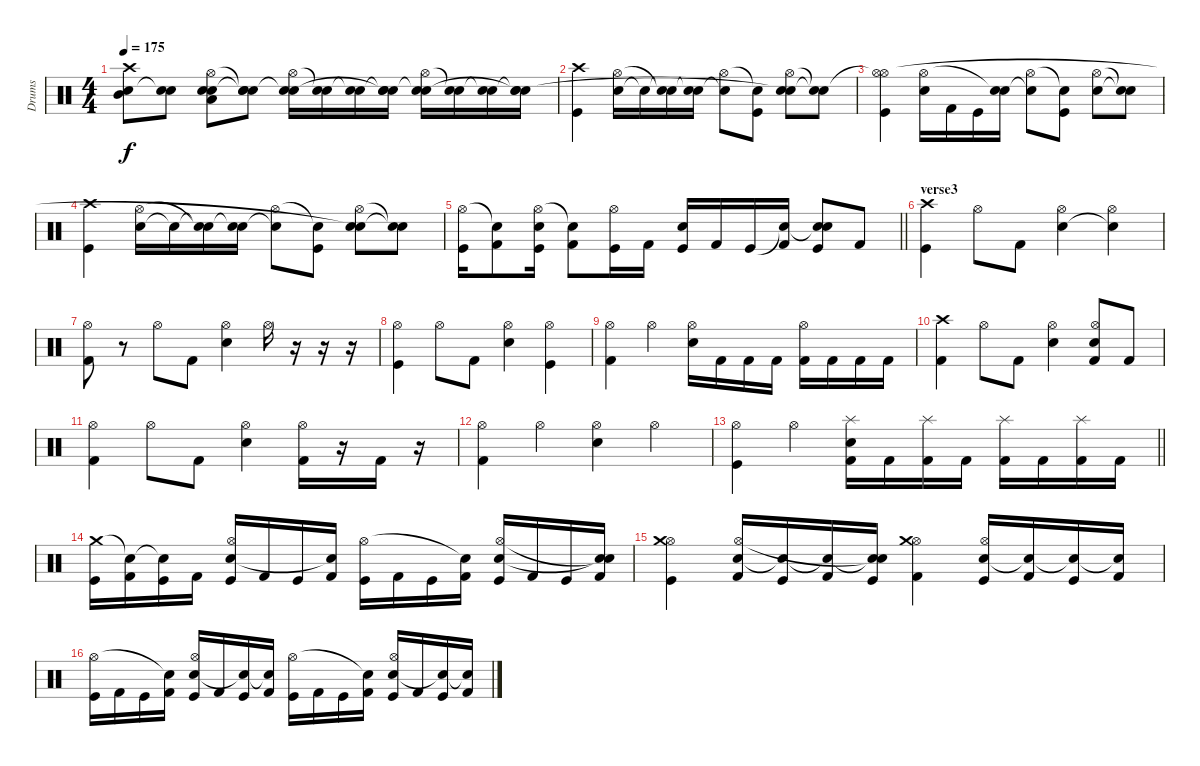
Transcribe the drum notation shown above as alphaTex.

\track ("Drums" "Drums") {instrument percussion}
\staff {score}
\articulation defaults
\ts (4 4)
\tempo 175
\clef neutral
\ks c
("Mid Tom (hit)" "Snare (hit) 2" "Crash high (hit)").8{dy f} ("Snare (hit) 2" "Snare (hit)"{t}).8 ("Low Floor Tom (hit)" "Snare (hit) 2" "Hi-Hat (open)" "Snare (hit)"{t}).8 ("Snare (hit) 2" "Snare (hit)"{t} "Snare (hit)"{t}).8 ("Snare (hit) 2" "Hi-Hat (open)" "Snare (hit)"{t}).16 ("Snare (hit) 2" "Snare (hit)"{t}).16 ("Snare (hit) 2" "Snare (hit)"{t}).16 ("Snare (hit) 2" "Snare (hit)"{t} "Snare (hit)"{t}).16 ("Snare (hit) 2" "Hi-Hat (open)" "Snare (hit)"{t}).16 ("Snare (hit) 2" "Snare (hit)"{t}).16 ("Snare (hit) 2" "Snare (hit)"{t}).16 ("Snare (hit) 2" "Snare (hit)"{t} "Snare (hit)"{t}).16 |
("Kick (hit)" "Crash high (hit)").4 ("Snare (hit) 2" "Hi-Hat (open)").16 "Snare (hit)"{t}.16 ("Snare (hit)"{t} "Snare (hit)"{t}).16 ("Snare (hit) 2" "Snare (hit)"{t}).16 ("Snare (hit)"{t} "Hi-Hat (open)").8 ("Kick (hit)" "Snare (hit)"{t}).8 ("Snare (hit) 2" "Hi-Hat (open)" "Snare (hit)"{t}).8 ("Snare (hit)"{t} "Snare (hit)"{t}).8 |
("Kick (hit)" "Hi-Hat (open)"{t} "Hi-Hat (open)").4 ("Snare (hit) 2" "Hi-Hat (open)").16 "Kick (hit) 2".16 "Kick (hit)".16 ("Snare (hit) 2" "Snare (hit)"{t}).16 ("Snare (hit)"{t} "Hi-Hat (open)").8 ("Kick (hit)" "Snare (hit)"{t}).8 ("Snare (hit) 2" "Hi-Hat (open)").8 ("Snare (hit)"{t} "Snare (hit)"{t}).8 |
("Kick (hit)" "Crash high (hit)").4 ("Snare (hit) 2" "Hi-Hat (open)").16 "Snare (hit)"{t}.16 ("Snare (hit)"{t} "Snare (hit)"{t}).16 ("Snare (hit) 2" "Snare (hit)"{t}).16 ("Snare (hit)"{t} "Hi-Hat (open)").8 ("Kick (hit)" "Snare (hit)"{t}).8 ("Snare (hit) 2" "Hi-Hat (open)" "Snare (hit)"{t}).8 ("Snare (hit)"{t} "Snare (hit)"{t}).8 |
\barLineRight lightlight
("Hi-Hat (open)" "Kick (hit)").16 ("Snare (hit)"{t} "Kick (hit) 2").8 ("Hi-Hat (open)" "Snare (hit) 2" "Kick (hit)").16 ("Snare (hit)"{t} "Kick (hit) 2").8 ("Hi-Hat (open)" "Kick (hit)").16 "Kick (hit) 2".16 ("Snare (hit) 2" "Kick (hit)").16 "Kick (hit) 2".16 "Kick (hit)".16 ("Snare (hit)"{t} "Kick (hit) 2").16 ("Snare (hit)"{t} "Snare (hit) 2" "Kick (hit)").8 "Kick (hit) 2".8 |
\section ("" "verse3")
("Kick (hit)" "Crash high (hit)").4 "Hi-Hat (open)".8 "Kick (hit) 2".8 ("Hi-Hat (open)" "Snare (hit) 2").4 ("Hi-Hat (open)" "Snare (hit)"{t}).4 |
("Hi-Hat (open)" "Kick (hit) 2").8 r.8 "Hi-Hat (open)".8 "Kick (hit) 2".8 ("Hi-Hat (open)" "Snare (hit) 2").4 "Hi-Hat (open)".16 r.16 r.16 r.16 |
("Hi-Hat (open)" "Kick (hit)").4 "Hi-Hat (open)".8 "Kick (hit) 2".8 ("Hi-Hat (open)" "Snare (hit) 2").4 ("Hi-Hat (open)" "Kick (hit)").4 |
("Hi-Hat (open)" "Kick (hit) 2").4 "Hi-Hat (open)".4 ("Hi-Hat (open)" "Snare (hit) 2").16 "Kick (hit) 2".16 "Kick (hit) 2".16 "Kick (hit) 2".16 ("Hi-Hat (open)" "Kick (hit) 2").16 "Kick (hit) 2".16 "Kick (hit) 2".16 "Kick (hit) 2".16 |
("Kick (hit) 2" "Crash high (hit)").4 "Hi-Hat (open)".8 "Kick (hit) 2".8 ("Hi-Hat (open)" "Snare (hit) 2").4 ("Hi-Hat (open)" "Kick (hit) 2" "Snare (hit)").8 "Kick (hit) 2".8 |
("Hi-Hat (open)" "Kick (hit) 2").4 "Hi-Hat (open)".8 "Kick (hit) 2".8 ("Hi-Hat (open)" "Snare (hit) 2").4 ("Hi-Hat (open)" "Kick (hit) 2").16 r.16 "Kick (hit) 2".16 r.16 |
("Hi-Hat (open)" "Kick (hit) 2").4 "Hi-Hat (open)".4 ("Hi-Hat (open)" "Snare (hit) 2").4 "Hi-Hat (open)".4 |
\barLineRight lightlight
("Hi-Hat (open)" "Kick (hit)").4 "Hi-Hat (open)".4 ("Splash (hit)" "Snare (hit) 2" "Kick (hit) 2").16 "Kick (hit) 2".16 ("Splash (hit)" "Kick (hit) 2").16 "Kick (hit) 2".16 ("Splash (hit)" "Kick (hit) 2").16 "Kick (hit) 2".16 ("Splash (hit)" "Kick (hit) 2").16 "Kick (hit) 2".16 |
("Kick (hit)" "Crash medium (hit)").16 ("Kick (hit) 2" "Snare (hit)"{t}).16 ("Kick (hit)" "Snare (hit)"{t}).16 "Kick (hit) 2".16 ("Kick (hit)" "Snare (hit) 2" "Hi-Hat (open)").16 "Kick (hit) 2".16 "Kick (hit)".16 ("Kick (hit) 2" "Snare (hit)"{t}).16 ("Kick (hit)" "Hi-Hat (open)").16 "Kick (hit) 2".16 "Kick (hit)".16 ("Kick (hit) 2" "Snare (hit)"{t}).16 ("Kick (hit)" "Snare (hit) 2" "Hi-Hat (open)").16 "Kick (hit) 2".16 "Kick (hit)".16 ("Kick (hit) 2" "Snare (hit)"{t} "Snare (hit)"{t}).16 |
("Kick (hit)" "Hi-Hat (open)" "Crash medium (hit)").4 ("Kick (hit) 2" "Snare (hit) 2" "Hi-Hat (open)").16 ("Kick (hit)" "Snare (hit)"{t}).16 ("Kick (hit) 2" "Snare (hit)"{t}).16 ("Kick (hit)" "Snare (hit)"{t} "Snare (hit)"{t}).16 ("Kick (hit) 2" "Hi-Hat (open)" "Crash medium (hit)").4 ("Kick (hit)" "Snare (hit) 2" "Hi-Hat (open)").16 ("Kick (hit) 2" "Snare (hit)"{t}).16 ("Kick (hit)" "Snare (hit)"{t}).16 ("Kick (hit) 2" "Snare (hit)"{t}).16 |
("Kick (hit)" "Hi-Hat (open)").16 "Kick (hit) 2".16 "Kick (hit)".16 ("Kick (hit) 2" "Snare (hit)"{t}).16 ("Kick (hit)" "Snare (hit) 2" "Hi-Hat (open)").16 "Kick (hit) 2".16 ("Kick (hit)" "Snare (hit)"{t}).16 ("Kick (hit) 2" "Snare (hit)"{t}).16 ("Kick (hit)" "Hi-Hat (open)").16 "Kick (hit) 2".16 "Kick (hit)".16 ("Kick (hit) 2" "Snare (hit)"{t}).16 ("Kick (hit)" "Snare (hit) 2" "Hi-Hat (open)").16 "Kick (hit) 2".16 ("Kick (hit)" "Snare (hit)"{t}).16 ("Kick (hit) 2" "Snare (hit)"{t}).16
